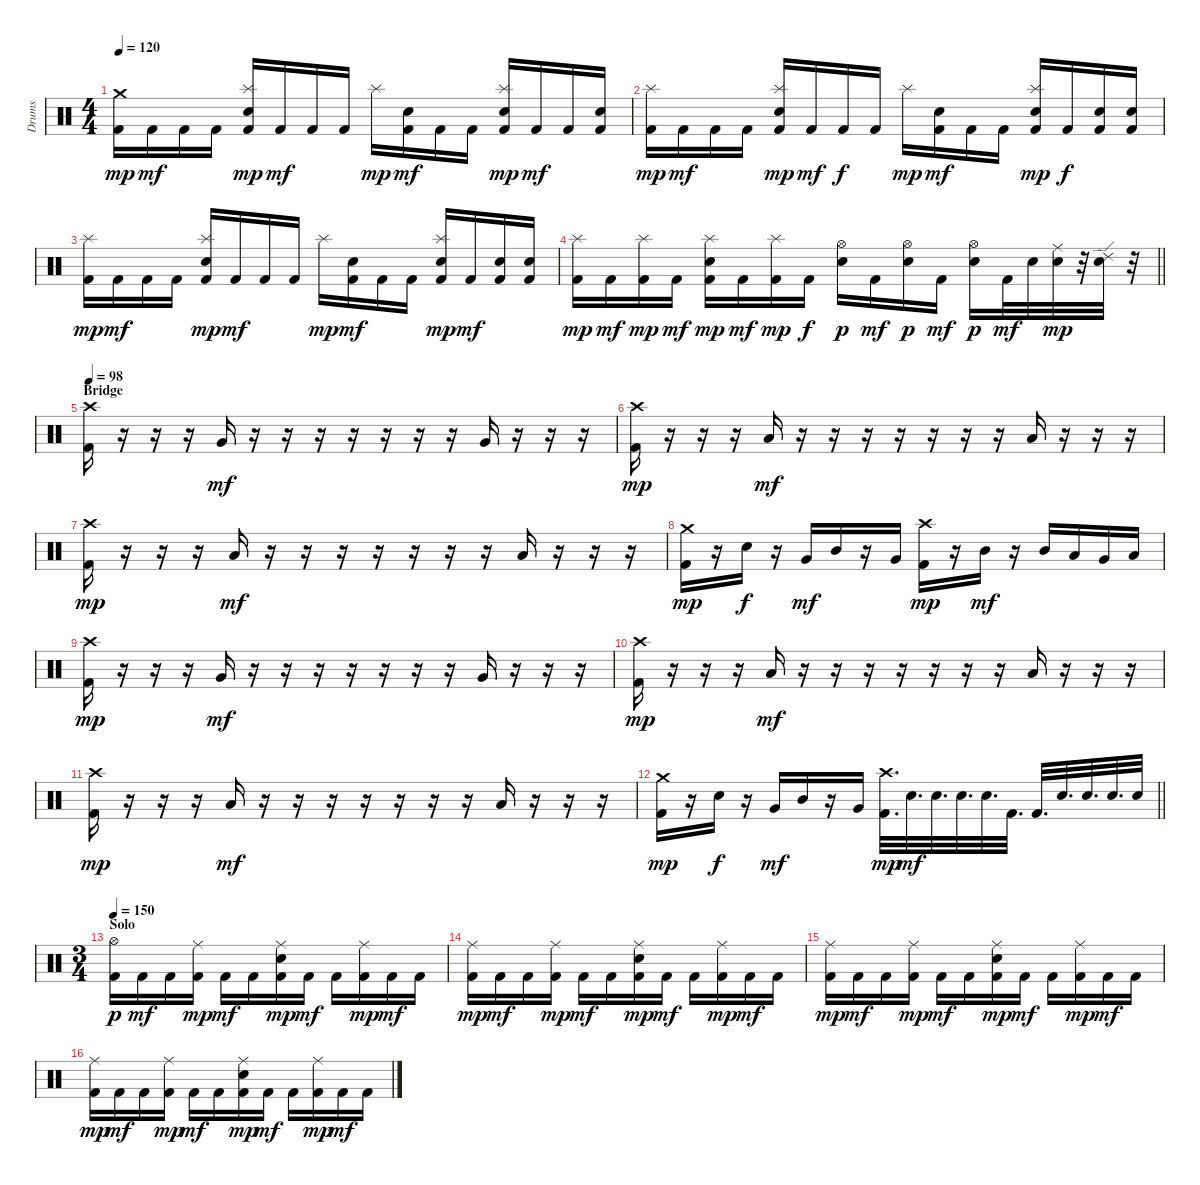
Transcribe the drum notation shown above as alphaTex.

\track ("Drums" "Drums") {instrument percussion}
\staff {score}
\articulation defaults
\ts (4 4)
\tempo 120
\clef neutral
\ks c
("Kick (hit) 2" "Crash medium (hit)").16{dy mp} "Kick (hit) 2".16{dy mf} "Kick (hit) 2".16 "Kick (hit) 2".16 ("Kick (hit) 2" "Splash (hit)" "Snare (hit) 2").16{dy mp} "Kick (hit) 2".16{dy mf} "Kick (hit) 2".16 "Kick (hit) 2".16 "Splash (hit)".16{dy mp} ("Kick (hit) 2" "Snare (hit) 2").16{dy mf} "Kick (hit) 2".16 "Kick (hit) 2".16 ("Kick (hit) 2" "Splash (hit)" "Snare (hit) 2").16{dy mp} "Kick (hit) 2".16{dy mf} "Kick (hit) 2".16 ("Kick (hit) 2" "Snare (hit) 2").16 |
("Kick (hit) 2" "Splash (hit)").16{dy mp} "Kick (hit) 2".16{dy mf} "Kick (hit) 2".16 "Kick (hit) 2".16 ("Kick (hit) 2" "Splash (hit)" "Snare (hit) 2").16{dy mp} "Kick (hit) 2".16{dy mf} "Kick (hit) 2".16{dy f} "Kick (hit) 2".16 "Splash (hit)".16{dy mp} ("Kick (hit) 2" "Snare (hit) 2").16{dy mf} "Kick (hit) 2".16 "Kick (hit) 2".16 ("Kick (hit) 2" "Splash (hit)" "Snare (hit) 2").16{dy mp} "Kick (hit) 2".16{dy f} ("Kick (hit) 2" "Snare (hit) 2").16 ("Kick (hit) 2" "Snare (hit) 2").16 |
("Kick (hit) 2" "Splash (hit)").16{dy mp} "Kick (hit) 2".16{dy mf} "Kick (hit) 2".16 "Kick (hit) 2".16 ("Kick (hit) 2" "Splash (hit)" "Snare (hit) 2").16{dy mp} "Kick (hit) 2".16{dy mf} "Kick (hit) 2".16 "Kick (hit) 2".16 "Splash (hit)".16{dy mp} ("Kick (hit) 2" "Snare (hit) 2").16{dy mf} "Kick (hit) 2".16 "Kick (hit) 2".16 ("Kick (hit) 2" "Splash (hit)" "Snare (hit) 2").16{dy mp} "Kick (hit) 2".16{dy mf} ("Kick (hit) 2" "Snare (hit) 2").16 ("Kick (hit) 2" "Snare (hit) 2").16 |
\barLineRight lightlight
("Kick (hit) 2" "Splash (hit)").16{dy mp} "Kick (hit) 2".16{dy mf} ("Kick (hit) 2" "Splash (hit)").16{dy mp} "Kick (hit) 2".16{dy mf} ("Kick (hit) 2" "Splash (hit)" "Snare (hit) 2").16{dy mp} "Kick (hit) 2".16{dy mf} ("Kick (hit) 2" "Splash (hit)").16{dy mp} "Kick (hit) 2".16{dy f} ("Hi-Hat (open)" "Snare (hit) 2").16{dy p} "Kick (hit) 2".16{dy mf} ("Hi-Hat (open)" "Snare (hit) 2").16{dy p} "Kick (hit) 2".16{dy mf} ("Hi-Hat (open)" "Snare (hit) 2").16{dy p} "Kick (hit) 2".32{dy mf} "Snare (hit) 2".32 ("Ride (middle)" "Snare (hit) 2").32{dy mp} r.32 ("Ride (edge) 2" "Snare (hit) 2").32 r.32 |
\section ("" "Bridge")
\tempo 98
("Kick (hit) 2" "Crash high (hit)").16 r.16 r.16 r.16 "Very Low Tom (hit)".16{dy mf} r.16 r.16 r.16 r.16 r.16 r.16 r.16 "Very Low Tom (hit)".16 r.16 r.16 r.16 |
("Kick (hit) 2" "Crash high (hit)").16{dy mp} r.16 r.16 r.16 "Low Floor Tom (hit)".16{dy mf} r.16 r.16 r.16 r.16 r.16 r.16 r.16 "Low Floor Tom (hit)".16 r.16 r.16 r.16 |
("Kick (hit) 2" "Crash high (hit)").16{dy mp} r.16 r.16 r.16 "Low Floor Tom (hit)".16{dy mf} r.16 r.16 r.16 r.16 r.16 r.16 r.16 "Low Floor Tom (hit)".16 r.16 r.16 r.16 |
("Kick (hit) 2" "Crash medium (hit)").16{dy mp} r.16 "Snare (hit) 2".16{dy f} r.16 "Very Low Tom (hit)".16{dy mf} "Mid Tom (hit)".16 r.16 "Very Low Tom (hit)".16 ("Kick (hit) 2" "Crash high (hit)").16{dy mp} r.16 "Mid Tom (hit)".16{dy mf} r.16 "Mid Tom (hit)".16 "Low Tom (hit)".16 "Very Low Tom (hit)".16 "Low Floor Tom (hit)".16 |
("Kick (hit) 2" "Crash high (hit)").16{dy mp} r.16 r.16 r.16 "Very Low Tom (hit)".16{dy mf} r.16 r.16 r.16 r.16 r.16 r.16 r.16 "Very Low Tom (hit)".16 r.16 r.16 r.16 |
("Kick (hit) 2" "Crash high (hit)").16{dy mp} r.16 r.16 r.16 "Low Floor Tom (hit)".16{dy mf} r.16 r.16 r.16 r.16 r.16 r.16 r.16 "Low Floor Tom (hit)".16 r.16 r.16 r.16 |
("Kick (hit) 2" "Crash high (hit)").16{dy mp} r.16 r.16 r.16 "Low Floor Tom (hit)".16{dy mf} r.16 r.16 r.16 r.16 r.16 r.16 r.16 "Low Floor Tom (hit)".16 r.16 r.16 r.16 |
\barLineRight lightlight
("Kick (hit) 2" "Crash medium (hit)").16{dy mp} r.16 "Snare (hit) 2".16{dy f} r.16 "Very Low Tom (hit)".16{dy mf} "Mid Tom (hit)".16 r.16 "Very Low Tom (hit)".16 ("Kick (hit) 2" "Crash high (hit)").32{d dy mp} "Snare (hit) 2".32{d dy mf} "Snare (hit) 2".32{d} "Snare (hit) 2".32{d} "Snare (hit) 2".32{d} "Kick (hit) 2".32{d} "Kick (hit) 2".32{d} "Snare (hit) 2".32{d} "Snare (hit) 2".32{d} "Snare (hit) 2".32{d} "Snare (hit) 2".32 |
\ts (3 4)
\section ("" "Solo")
\tempo 150
("Kick (hit) 2" "Hi-Hat (open)").16{dy p} "Kick (hit) 2".16{dy mf} "Kick (hit) 2".16 ("Kick (hit) 2" "Ride (middle)").16{dy mp} "Kick (hit) 2".16{dy mf} "Kick (hit) 2".16 ("Kick (hit) 2" "Ride (middle)" "Snare (hit) 2").16{dy mp} "Kick (hit) 2".16{dy mf} "Kick (hit) 2".16 ("Kick (hit) 2" "Ride (middle)").16{dy mp} "Kick (hit) 2".16{dy mf} "Kick (hit) 2".16 |
("Kick (hit) 2" "Ride (middle)").16{dy mp} "Kick (hit) 2".16{dy mf} "Kick (hit) 2".16 ("Kick (hit) 2" "Ride (middle)").16{dy mp} "Kick (hit) 2".16{dy mf} "Kick (hit) 2".16 ("Kick (hit) 2" "Ride (middle)" "Snare (hit) 2").16{dy mp} "Kick (hit) 2".16{dy mf} "Kick (hit) 2".16 ("Kick (hit) 2" "Ride (middle)").16{dy mp} "Kick (hit) 2".16{dy mf} "Kick (hit) 2".16 |
("Kick (hit) 2" "Ride (middle)").16{dy mp} "Kick (hit) 2".16{dy mf} "Kick (hit) 2".16 ("Kick (hit) 2" "Ride (middle)").16{dy mp} "Kick (hit) 2".16{dy mf} "Kick (hit) 2".16 ("Kick (hit) 2" "Ride (middle)" "Snare (hit) 2").16{dy mp} "Kick (hit) 2".16{dy mf} "Kick (hit) 2".16 ("Kick (hit) 2" "Ride (middle)").16{dy mp} "Kick (hit) 2".16{dy mf} "Kick (hit) 2".16 |
("Kick (hit) 2" "Ride (middle)").16{dy mp} "Kick (hit) 2".16{dy mf} "Kick (hit) 2".16 ("Kick (hit) 2" "Ride (middle)").16{dy mp} "Kick (hit) 2".16{dy mf} "Kick (hit) 2".16 ("Kick (hit) 2" "Ride (middle)" "Snare (hit) 2").16{dy mp} "Kick (hit) 2".16{dy mf} "Kick (hit) 2".16 ("Kick (hit) 2" "Ride (middle)").16{dy mp} "Kick (hit) 2".16{dy mf} "Kick (hit) 2".16
